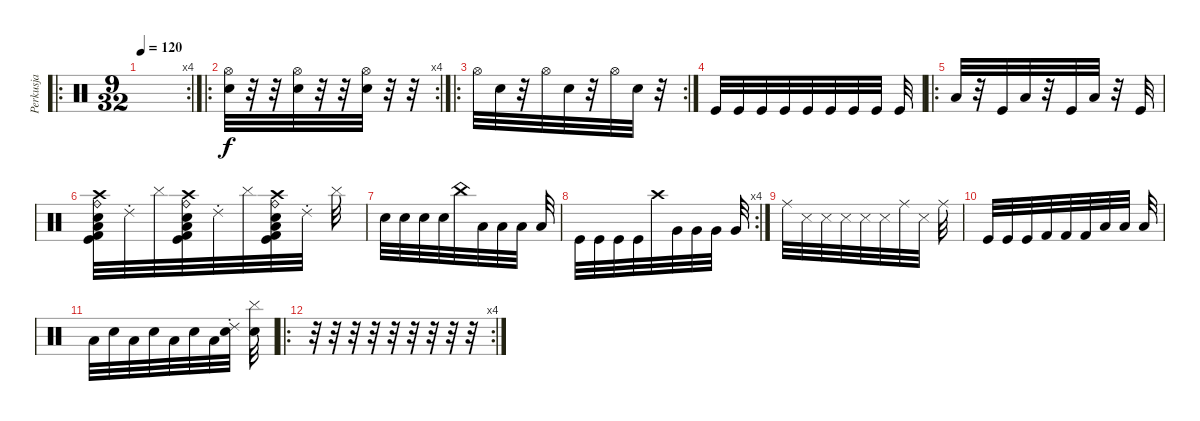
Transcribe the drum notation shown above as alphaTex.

\track ("Perkusja" "Perkusja") {instrument percussion}
\staff {score}
\articulation defaults
\ro
\rc 4
\ts (9 32)
\tempo 120
\clef neutral
\ks c
|
\ro
\rc 4
("Hand Clap (hit)" "Hi-Hat (open)").32 r.32 r.32 ("Hand Clap (hit)" "Hi-Hat (open)").32 r.32 r.32 ("Hand Clap (hit)" "Hi-Hat (open)").32 r.32 r.32 |
\ro
\rc 2 "Hi-Hat (open)".32 "Electric Snare (hit)".32
r.32 "Hi-Hat (open)".32 "Electric Snare (hit)".32 r.32 "Hi-Hat (open)".32 "Electric Snare (hit)".32 r.32 |
"Kick (hit)".32 "Kick (hit)".32 "Kick (hit)".32 "Kick (hit)".32 "Kick (hit)".32 "Kick (hit)".32 "Kick (hit)".32 "Kick (hit)".32 "Kick (hit)".32 |
\ro "Low Floor Tom (hit)".32
r.32 "Kick (hit)".32 "Low Floor Tom (hit)".32 r.32 "Kick (hit)".32 "Low Floor Tom (hit)".32 r.32 "Kick (hit)".32 |
("Ride (bell)" "Crash high (hit)" "Electric Snare (hit)" "Kick (hit) 2" "Kick (hit)" "Low Floor Tom (hit)").32 "Ride (choke) 2".32 "Cymbal (hit)".32 ("Ride (bell)" "Crash high (hit)" "Electric Snare (hit)" "Kick (hit) 2" "Kick (hit)" "Low Floor Tom (hit)").32 "Ride (choke) 2".32 "Cymbal (hit)".32 ("Ride (bell)" "Crash high (hit)" "Electric Snare (hit)" "Kick (hit) 2" "Kick (hit)" "Low Floor Tom (hit)").32 "Ride (choke) 2".32 "Cymbal (hit)".32 |
"Electric Snare (hit)".32 "Electric Snare (hit)".32 "Electric Snare (hit)".32 "Electric Snare (hit)".32 "China (hit)".32 "Low Floor Tom (hit)".32 "Low Floor Tom (hit)".32 "Low Floor Tom (hit)".32 "Low Floor Tom (hit)".32 |
\rc 4 "Kick (hit)".32 "Kick (hit)".32 "Kick (hit)".32 "Kick (hit)".32 "Crash high (hit)".32 "Very Low Tom (hit)".32 "Very Low Tom (hit)".32 "Very Low Tom (hit)".32 "Very Low Tom (hit)".32
|
"Ride (middle)".32 "Metronome (hit)".32 "Metronome (hit)".32 "Metronome (hit)".32 "Metronome (hit)".32 "Metronome (hit)".32 "Ride (middle)".32 "Metronome (hit)".32 "Ride (middle)".32 |
"Kick (hit)".32 "Kick (hit)".32 "Kick (hit)".32 "Kick (hit) 2".32 "Kick (hit) 2".32 "Kick (hit) 2".32 "Low Floor Tom (hit)".32 "Low Floor Tom (hit)".32 "Low Floor Tom (hit)".32 |
"Low Floor Tom (hit)".32 "Electric Snare (hit)".32 "Low Floor Tom (hit)".32 "Electric Snare (hit)".32 "Low Floor Tom (hit)".32 "Electric Snare (hit)".32 "Low Floor Tom (hit)".32 ("Electric Snare (hit)" "Ride (choke) 2").32 ("Electric Snare (hit)" "Cymbal (hit)").32 |
\ro
\rc 4
r.32 r.32 r.32 r.32 r.32 r.32 r.32 r.32 r.32
